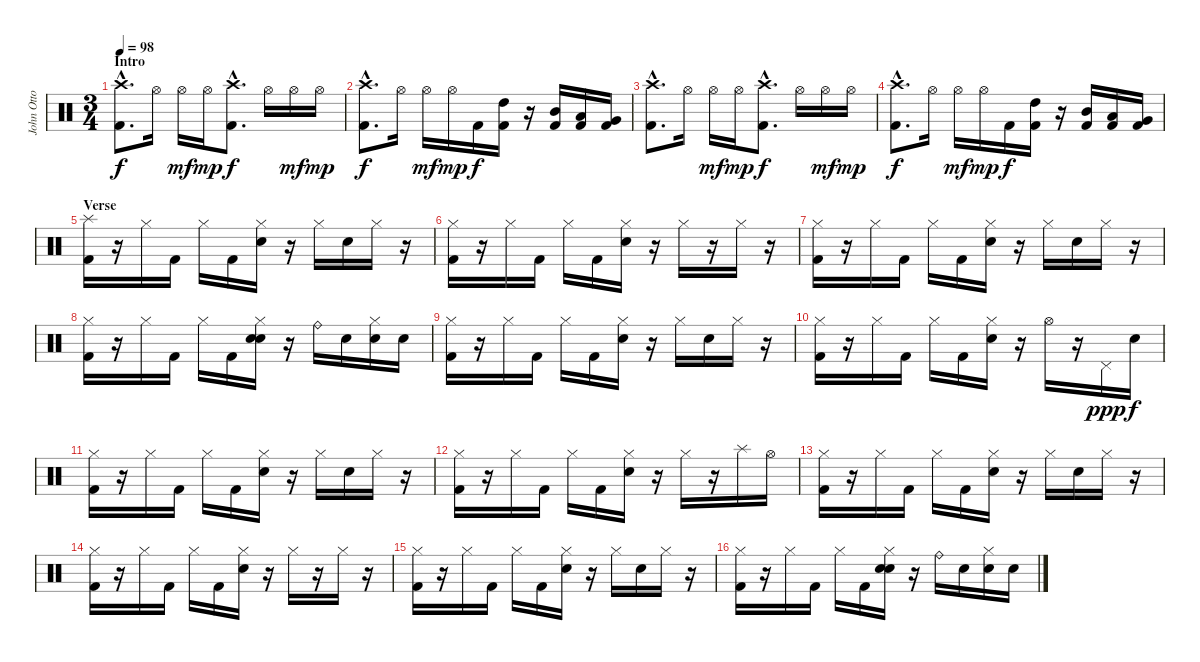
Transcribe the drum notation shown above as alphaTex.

\track ("John Otto - Drums" "John Otto ") {instrument percussion}
\staff {score}
\articulation defaults
\ts (3 4)
\section ("" "Intro")
\tempo 98
\clef neutral
\ks c
("Crash high (hit)"{hac} "Kick (hit) 2"{hac}).8{d dy f} "Hi-Hat (open)".16 "Hi-Hat (open)".16{dy mf} "Hi-Hat (open)".16{dy mp} ("Crash high (hit)"{hac} "Kick (hit) 2"{hac}).8{d dy f} "Hi-Hat (open)".16 "Hi-Hat (open)".16{dy mf} "Hi-Hat (open)".16{dy mp} |
("Crash high (hit)"{hac} "Kick (hit) 2"{hac}).8{d dy f} "Hi-Hat (open)".16 "Hi-Hat (open)".16{dy mf} "Hi-Hat (open)".16{dy mp} "Kick (hit) 2".16{dy f} ("High Tom (hit)" "Kick (hit) 2").16 r.16 ("Mid Tom (hit)" "Kick (hit) 2").16 ("Low Tom (hit)" "Kick (hit) 2").16 ("Very Low Tom (hit)" "Kick (hit) 2").16 |
("Crash high (hit)"{hac} "Kick (hit) 2"{hac}).8{d} "Hi-Hat (open)".16 "Hi-Hat (open)".16{dy mf} "Hi-Hat (open)".16{dy mp} ("Crash high (hit)"{hac} "Kick (hit) 2"{hac}).8{d dy f} "Hi-Hat (open)".16 "Hi-Hat (open)".16{dy mf} "Hi-Hat (open)".16{dy mp} |
("Crash high (hit)"{hac} "Kick (hit) 2"{hac}).8{d dy f} "Hi-Hat (open)".16 "Hi-Hat (open)".16{dy mf} "Hi-Hat (open)".16{dy mp} "Kick (hit) 2".16{dy f} ("High Tom (hit)" "Kick (hit) 2").16 r.16 ("Mid Tom (hit)" "Kick (hit) 2").16 ("Low Tom (hit)" "Kick (hit) 2").16 ("Very Low Tom (hit)" "Kick (hit) 2").16 |
\section ("" "Verse")
("Splash (hit)" "Kick (hit) 2").16 r.16 "Hi-Hat (closed)".16 "Kick (hit) 2".16 "Hi-Hat (closed)".16 "Kick (hit) 2".16 ("Hi-Hat (closed)" "Electric Snare (hit)").16 r.16 "Hi-Hat (closed)".16 "Electric Snare (hit)".16 "Hi-Hat (closed)".16 r.16 |
("Hi-Hat (closed)" "Kick (hit) 2").16 r.16 "Hi-Hat (closed)".16 "Kick (hit) 2".16 "Hi-Hat (closed)".16 "Kick (hit) 2".16 ("Hi-Hat (closed)" "Electric Snare (hit)").16 r.16 "Hi-Hat (closed)".16 r.16 "Hi-Hat (closed)".16 r.16 |
("Hi-Hat (closed)" "Kick (hit) 2").16 r.16 "Hi-Hat (closed)".16 "Kick (hit) 2".16 "Hi-Hat (closed)".16 "Kick (hit) 2".16 ("Hi-Hat (closed)" "Electric Snare (hit)").16 r.16 "Hi-Hat (closed)".16 "Electric Snare (hit)".16 "Hi-Hat (closed)".16 r.16 |
("Hi-Hat (closed)" "Kick (hit) 2").16 r.16 "Hi-Hat (closed)".16 "Kick (hit) 2".16 "Hi-Hat (closed)".16 "Kick (hit) 2".16 ("Hi-Hat (closed)" "Electric Snare (hit)" "Electric Snare (hit)").16{bd 240} r.16 "Ride (bell)".16 "Electric Snare (hit)".16 ("Hi-Hat (closed)" "Electric Snare (hit)").16 "Electric Snare (hit)".16 |
("Hi-Hat (closed)" "Kick (hit) 2").16 r.16 "Hi-Hat (closed)".16 "Kick (hit) 2".16 "Hi-Hat (closed)".16 "Kick (hit) 2".16 ("Hi-Hat (closed)" "Electric Snare (hit)").16 r.16 "Hi-Hat (closed)".16 "Electric Snare (hit)".16 "Hi-Hat (closed)".16 r.16 |
("Hi-Hat (closed)" "Kick (hit) 2").16 r.16 "Hi-Hat (closed)".16 "Kick (hit) 2".16 "Hi-Hat (closed)".16 "Kick (hit) 2".16 ("Hi-Hat (closed)" "Electric Snare (hit)").16 r.16 "Hi-Hat (open)".16 r.16 "Pedal Hi-Hat (hit)".16{dy ppp} "Electric Snare (hit)".16{dy f} |
("Hi-Hat (closed)" "Kick (hit) 2").16 r.16 "Hi-Hat (closed)".16 "Kick (hit) 2".16 "Hi-Hat (closed)".16 "Kick (hit) 2".16 ("Hi-Hat (closed)" "Electric Snare (hit)").16 r.16 "Hi-Hat (closed)".16 "Electric Snare (hit)".16 "Hi-Hat (closed)".16 r.16 |
("Hi-Hat (closed)" "Kick (hit) 2").16 r.16 "Hi-Hat (closed)".16 "Kick (hit) 2".16 "Hi-Hat (closed)".16 "Kick (hit) 2".16 ("Hi-Hat (closed)" "Electric Snare (hit)").16 r.16 "Hi-Hat (closed)".16 r.16 "Splash (hit)".16 "Hi-Hat (open)".16 |
("Hi-Hat (closed)" "Kick (hit) 2").16 r.16 "Hi-Hat (closed)".16 "Kick (hit) 2".16 "Hi-Hat (closed)".16 "Kick (hit) 2".16 ("Hi-Hat (closed)" "Electric Snare (hit)").16 r.16 "Hi-Hat (closed)".16 "Electric Snare (hit)".16 "Hi-Hat (closed)".16 r.16 |
("Hi-Hat (closed)" "Kick (hit) 2").16 r.16 "Hi-Hat (closed)".16 "Kick (hit) 2".16 "Hi-Hat (closed)".16 "Kick (hit) 2".16 ("Hi-Hat (closed)" "Electric Snare (hit)").16 r.16 "Hi-Hat (closed)".16 r.16 "Hi-Hat (closed)".16 r.16 |
("Hi-Hat (closed)" "Kick (hit) 2").16 r.16 "Hi-Hat (closed)".16 "Kick (hit) 2".16 "Hi-Hat (closed)".16 "Kick (hit) 2".16 ("Hi-Hat (closed)" "Electric Snare (hit)").16 r.16 "Hi-Hat (closed)".16 "Electric Snare (hit)".16 "Hi-Hat (closed)".16 r.16 |
("Hi-Hat (closed)" "Kick (hit) 2").16 r.16 "Hi-Hat (closed)".16 "Kick (hit) 2".16 "Hi-Hat (closed)".16 "Kick (hit) 2".16 ("Hi-Hat (closed)" "Electric Snare (hit)" "Electric Snare (hit)").16{bd 60} r.16 "Ride (bell)".16 "Electric Snare (hit)".16 ("Hi-Hat (closed)" "Electric Snare (hit)").16 "Electric Snare (hit)".16
